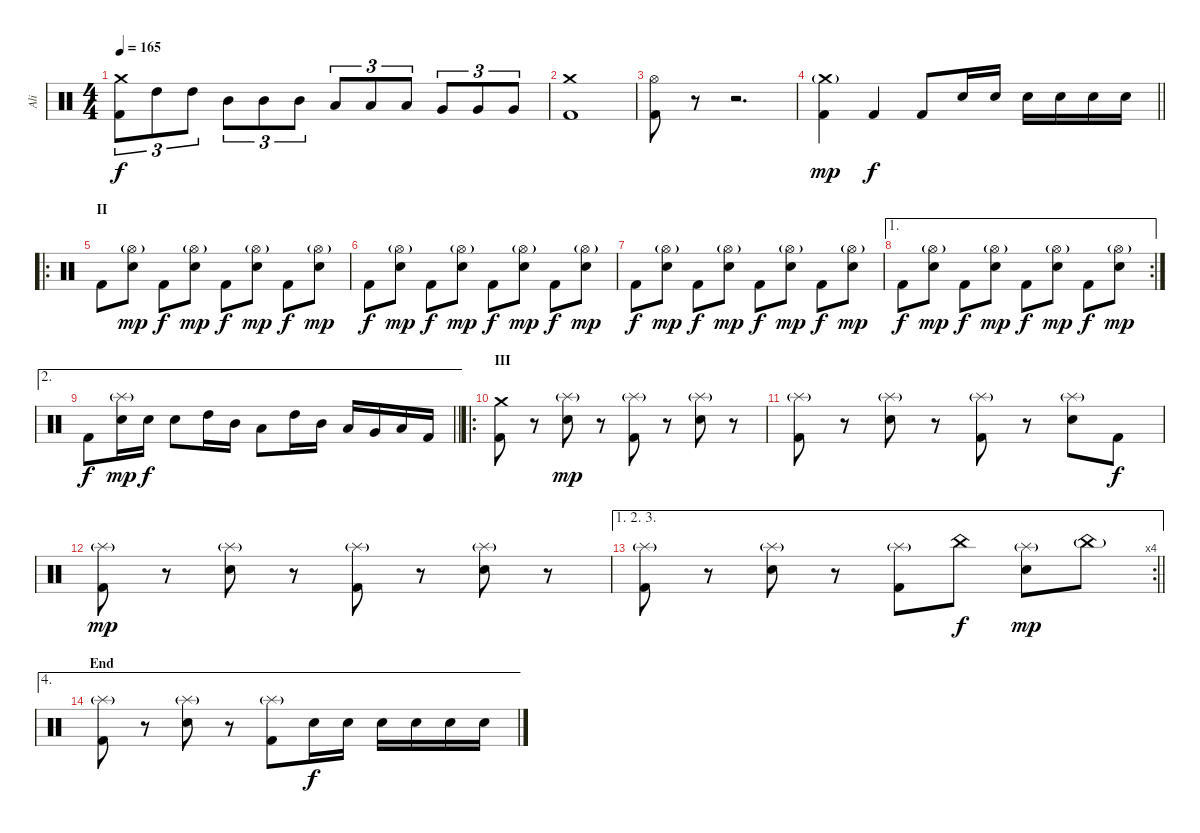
\track ("Ali" "Ali") {instrument percussion}
\staff {score}
\articulation defaults
\ts (4 4)
\tempo 165
\clef neutral
\ks c
("Kick (hit) 2" "Crash medium (hit)").8{tu (3 2) dy f} "High Tom (hit)".8{tu (3 2)} "High Tom (hit)".8{tu (3 2)} "Mid Tom (hit)".8{tu (3 2)} "Mid Tom (hit)".8{tu (3 2)} "Mid Tom (hit)".8{tu (3 2)} "Low Tom (hit)".8{tu (3 2)} "Low Tom (hit)".8{tu (3 2)} "Low Tom (hit)".8{tu (3 2)} "Very Low Tom (hit)".8{tu (3 2)} "Very Low Tom (hit)".8{tu (3 2)} "Very Low Tom (hit)".8{tu (3 2)} |
("Kick (hit) 2" "Crash medium (hit)").1 |
("Kick (hit) 2" "Hi-Hat (open)").8 r.8 r.2{d} |
\barLineRight lightlight
("Kick (hit) 2" "Crash medium (hit)"{g}).4{dy mp} "Kick (hit) 2".4{dy f} "Kick (hit) 2".8 "Snare (hit) 2".16 "Snare (hit) 2".16 "Snare (hit) 2".16 "Snare (hit) 2".16 "Snare (hit) 2".16 "Snare (hit) 2".16 |
\ro
\section ("" "II")
"Kick (hit) 2".8 ("Snare (hit) 2" "Hi-Hat (open)"{g}).8{dy mp} "Kick (hit) 2".8{dy f} ("Snare (hit) 2" "Hi-Hat (open)"{g}).8{dy mp} "Kick (hit) 2".8{dy f} ("Snare (hit) 2" "Hi-Hat (open)"{g}).8{dy mp} "Kick (hit) 2".8{dy f} ("Snare (hit) 2" "Hi-Hat (open)"{g}).8{dy mp} |
"Kick (hit) 2".8{dy f} ("Snare (hit) 2" "Hi-Hat (open)"{g}).8{dy mp} "Kick (hit) 2".8{dy f} ("Snare (hit) 2" "Hi-Hat (open)"{g}).8{dy mp} "Kick (hit) 2".8{dy f} ("Snare (hit) 2" "Hi-Hat (open)"{g}).8{dy mp} "Kick (hit) 2".8{dy f} ("Snare (hit) 2" "Hi-Hat (open)"{g}).8{dy mp} |
"Kick (hit) 2".8{dy f} ("Snare (hit) 2" "Hi-Hat (open)"{g}).8{dy mp} "Kick (hit) 2".8{dy f} ("Snare (hit) 2" "Hi-Hat (open)"{g}).8{dy mp} "Kick (hit) 2".8{dy f} ("Snare (hit) 2" "Hi-Hat (open)"{g}).8{dy mp} "Kick (hit) 2".8{dy f} ("Snare (hit) 2" "Hi-Hat (open)"{g}).8{dy mp} |
\ae 1
\rc 2 "Kick (hit) 2".8{dy f}
("Snare (hit) 2" "Hi-Hat (open)"{g}).8{dy mp} "Kick (hit) 2".8{dy f} ("Snare (hit) 2" "Hi-Hat (open)"{g}).8{dy mp} "Kick (hit) 2".8{dy f} ("Snare (hit) 2" "Hi-Hat (open)"{g}).8{dy mp} "Kick (hit) 2".8{dy f} ("Snare (hit) 2" "Hi-Hat (open)"{g}).8{dy mp} |
\ae 2
\barLineRight lightlight "Kick (hit) 2".8{dy f}
("Snare (hit) 2" "Splash (hit)"{g}).16{dy mp} "Snare (hit) 2".16{dy f} "Snare (hit) 2".8 "High Tom (hit)".16 "Mid Tom (hit)".16 "Low Tom (hit)".8 "High Tom (hit)".16 "Mid Tom (hit)".16 "Low Tom (hit)".16 "Very Low Tom (hit)".16 "Low Floor Tom (hit)".16 "Kick (hit) 2".16 |
\ro
\section ("" "III")
("Kick (hit) 2" "Crash medium (hit)").8 r.8 ("Electric Snare (hit)" "Splash (hit)"{g}).8{dy mp} r.8 ("Kick (hit) 2" "Splash (hit)"{g}).8 r.8 ("Electric Snare (hit)" "Splash (hit)"{g}).8 r.8 |
("Kick (hit) 2" "Splash (hit)"{g}).8 r.8 ("Electric Snare (hit)" "Splash (hit)"{g}).8 r.8 ("Kick (hit) 2" "Splash (hit)"{g}).8 r.8 ("Electric Snare (hit)" "Splash (hit)"{g}).8 "Kick (hit) 2".8{dy f} |
("Kick (hit) 2" "Splash (hit)"{g}).8{dy mp} r.8 ("Electric Snare (hit)" "Splash (hit)"{g}).8 r.8 ("Kick (hit) 2" "Splash (hit)"{g}).8 r.8 ("Electric Snare (hit)" "Splash (hit)"{g}).8 r.8 |
\ae (1 2 3)
\rc 4
\barLineRight lightlight
("Kick (hit) 2" "Splash (hit)"{g}).8 r.8 ("Electric Snare (hit)" "Splash (hit)"{g}).8 r.8 ("Kick (hit) 2" "Splash (hit)"{g}).8 "China (hit)".8{dy f} ("Electric Snare (hit)" "Splash (hit)"{g}).8{dy mp} "China (hit)"{g}.8 |
\ae 4
\section ("" "End")
("Kick (hit) 2" "Splash (hit)"{g}).8 r.8 ("Electric Snare (hit)" "Splash (hit)"{g}).8 r.8 ("Kick (hit) 2" "Splash (hit)"{g}).8 "Snare (hit) 2".16{dy f} "Snare (hit) 2".16 "Snare (hit) 2".16 "Snare (hit) 2".16 "Snare (hit) 2".16 "Snare (hit) 2".16
